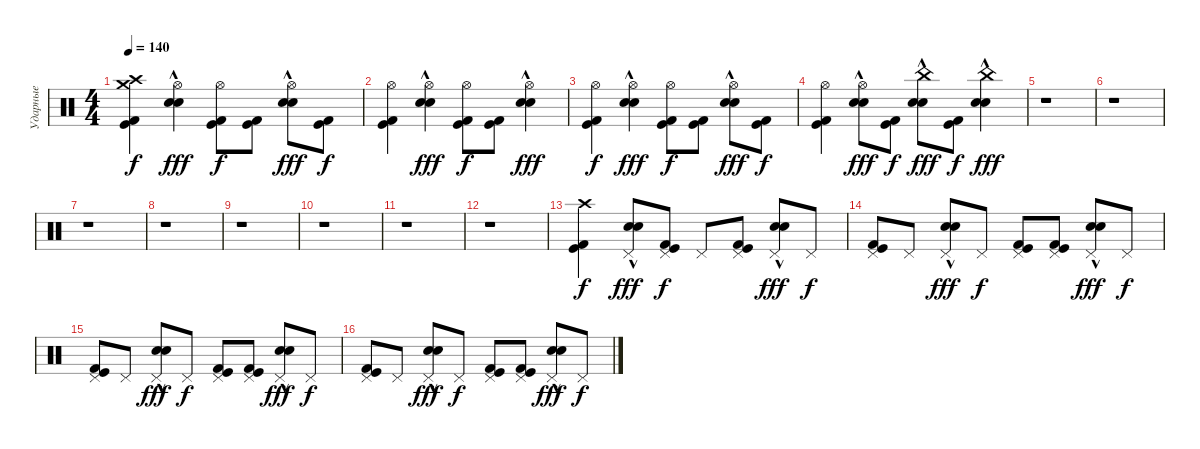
\track ("Ударные" "Ударные") {instrument percussion}
\staff {score}
\articulation defaults
\ts (4 4)
\tempo 140
\clef neutral
\ks c
("Crash high (hit)" "Kick (hit)" "Kick (hit) 2" "Crash medium (hit)").4{dy f} ("Hi-Hat (open)" "Snare (hit) 2"{hac} "Electric Snare (hit)"{hac}).4{dy fff} ("Hi-Hat (open)" "Kick (hit)" "Kick (hit) 2").8{dy f} ("Kick (hit)" "Kick (hit) 2").8 ("Hi-Hat (open)" "Snare (hit) 2"{hac} "Electric Snare (hit)"{hac}).8{dy fff} ("Kick (hit)" "Kick (hit) 2").8{dy f} |
("Hi-Hat (open)" "Kick (hit)" "Kick (hit) 2").4 ("Hi-Hat (open)" "Snare (hit) 2"{hac} "Electric Snare (hit)"{hac}).4{dy fff} ("Hi-Hat (open)" "Kick (hit)" "Kick (hit) 2").8{dy f} ("Kick (hit)" "Kick (hit) 2").8 ("Hi-Hat (open)" "Snare (hit) 2"{hac} "Electric Snare (hit)"{hac}).4{dy fff} |
("Hi-Hat (open)" "Kick (hit)" "Kick (hit) 2").4{dy f} ("Hi-Hat (open)" "Snare (hit) 2"{hac} "Electric Snare (hit)"{hac}).4{dy fff} ("Hi-Hat (open)" "Kick (hit)" "Kick (hit) 2").8{dy f} ("Kick (hit)" "Kick (hit) 2").8 ("Hi-Hat (open)" "Snare (hit) 2"{hac} "Electric Snare (hit)"{hac}).8{dy fff} ("Kick (hit)" "Kick (hit) 2").8{dy f} |
("Hi-Hat (open)" "Kick (hit)" "Kick (hit) 2").4 ("Hi-Hat (open)" "Snare (hit) 2"{hac} "Electric Snare (hit)"{hac}).8{dy fff} ("Kick (hit)" "Kick (hit) 2").8{dy f} ("China (hit)" "Snare (hit) 2"{hac} "Electric Snare (hit)"{hac}).8{dy fff} ("Kick (hit)" "Kick (hit) 2").8{dy f} ("China (hit)" "Snare (hit) 2"{hac} "Electric Snare (hit)"{hac}).4{dy fff} |
r.1 |
r.1 |
r.1 |
r.1 |
r.1 |
r.1 |
r.1 |
r.1 |
("Crash high (hit)" "Kick (hit)" "Kick (hit) 2").4{dy f} ("Pedal Hi-Hat (hit)" "Snare (hit) 2"{hac} "Electric Snare (hit)"{hac}).8{dy fff} ("Pedal Hi-Hat (hit)" "Kick (hit)" "Kick (hit) 2").8{dy f} "Pedal Hi-Hat (hit)".8 ("Pedal Hi-Hat (hit)" "Kick (hit)" "Kick (hit) 2").8 ("Pedal Hi-Hat (hit)" "Snare (hit) 2"{hac} "Electric Snare (hit)"{hac}).8{dy fff} "Pedal Hi-Hat (hit)".8{dy f} |
("Pedal Hi-Hat (hit)" "Kick (hit)" "Kick (hit) 2").8 "Pedal Hi-Hat (hit)".8 ("Pedal Hi-Hat (hit)" "Snare (hit) 2"{hac} "Electric Snare (hit)"{hac}).8{dy fff} "Pedal Hi-Hat (hit)".8{dy f} ("Pedal Hi-Hat (hit)" "Kick (hit)" "Kick (hit) 2").8 ("Pedal Hi-Hat (hit)" "Kick (hit)" "Kick (hit) 2").8 ("Pedal Hi-Hat (hit)" "Snare (hit) 2"{hac} "Electric Snare (hit)"{hac}).8{dy fff} "Pedal Hi-Hat (hit)".8{dy f} |
("Pedal Hi-Hat (hit)" "Kick (hit)" "Kick (hit) 2").8 "Pedal Hi-Hat (hit)".8 ("Pedal Hi-Hat (hit)" "Snare (hit) 2"{hac} "Electric Snare (hit)"{hac}).8{dy fff} "Pedal Hi-Hat (hit)".8{dy f} ("Pedal Hi-Hat (hit)" "Kick (hit)" "Kick (hit) 2").8 ("Pedal Hi-Hat (hit)" "Kick (hit)" "Kick (hit) 2").8 ("Pedal Hi-Hat (hit)" "Snare (hit) 2"{hac} "Electric Snare (hit)"{hac}).8{dy fff} "Pedal Hi-Hat (hit)".8{dy f} |
("Pedal Hi-Hat (hit)" "Kick (hit)" "Kick (hit) 2").8 "Pedal Hi-Hat (hit)".8 ("Pedal Hi-Hat (hit)" "Snare (hit) 2"{hac} "Electric Snare (hit)"{hac}).8{dy fff} "Pedal Hi-Hat (hit)".8{dy f} ("Pedal Hi-Hat (hit)" "Kick (hit)" "Kick (hit) 2").8 ("Pedal Hi-Hat (hit)" "Kick (hit)" "Kick (hit) 2").8 ("Pedal Hi-Hat (hit)" "Snare (hit) 2"{hac} "Electric Snare (hit)"{hac}).8{dy fff} "Pedal Hi-Hat (hit)".8{dy f}
